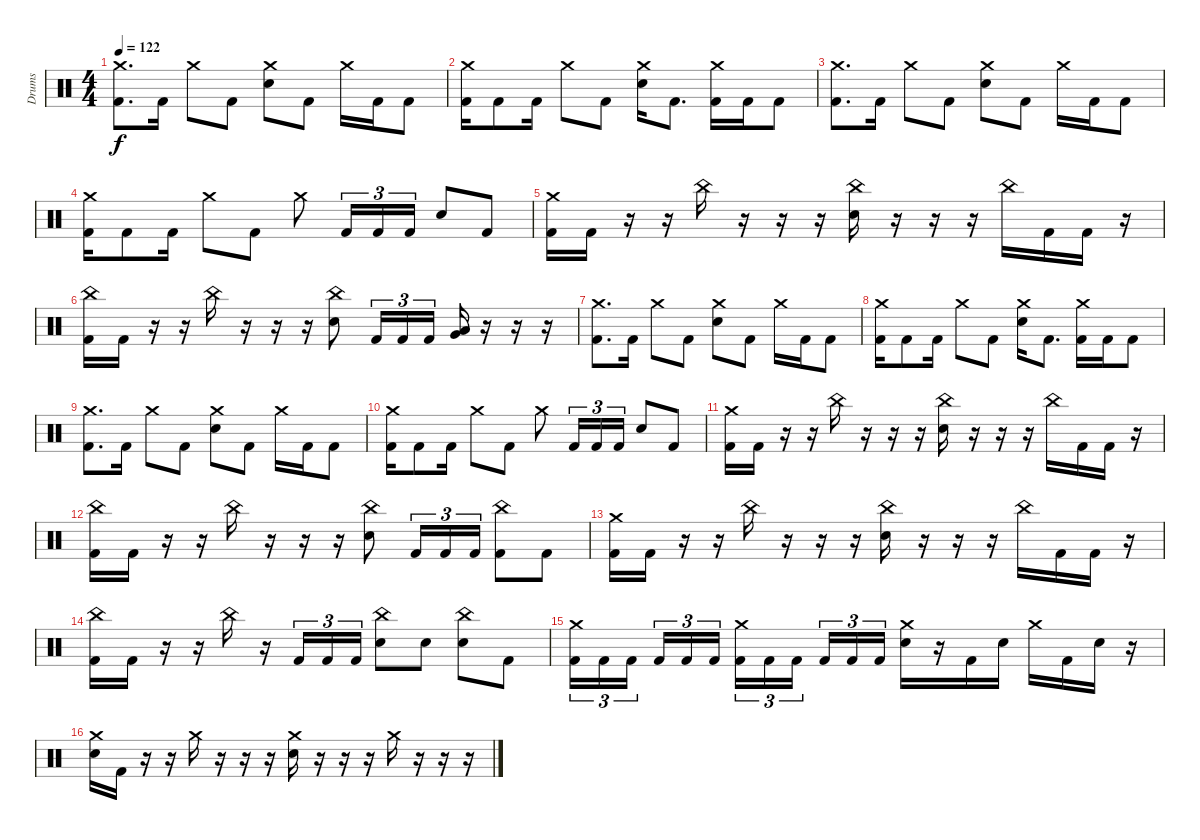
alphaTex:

\track ("Drums" "Drums") {instrument percussion}
\staff {score}
\articulation defaults
\ts (4 4)
\tempo 122
\clef neutral
\ks c
("Crash medium (hit)" "Kick (hit) 2").8{d dy f} "Kick (hit) 2".16 "Crash medium (hit)".8 "Kick (hit) 2".8 ("Crash medium (hit)" "Electric Snare (hit)").8 "Kick (hit) 2".8 "Crash medium (hit)".16 "Kick (hit) 2".16 "Kick (hit) 2".8 |
("Crash medium (hit)" "Kick (hit) 2").16 "Kick (hit) 2".8 "Kick (hit) 2".16 "Crash medium (hit)".8 "Kick (hit) 2".8 ("Crash medium (hit)" "Electric Snare (hit)").16 "Kick (hit) 2".8{d} ("Crash medium (hit)" "Kick (hit) 2").16 "Kick (hit) 2".16 "Kick (hit) 2".8 |
("Crash medium (hit)" "Kick (hit) 2").8{d} "Kick (hit) 2".16 "Crash medium (hit)".8 "Kick (hit) 2".8 ("Crash medium (hit)" "Electric Snare (hit)").8 "Kick (hit) 2".8 "Crash medium (hit)".16 "Kick (hit) 2".16 "Kick (hit) 2".8 |
("Crash medium (hit)" "Kick (hit) 2").16 "Kick (hit) 2".8 "Kick (hit) 2".16 "Crash medium (hit)".8 "Kick (hit) 2".8 "Crash medium (hit)".8 "Kick (hit) 2".16{tu (3 2)} "Kick (hit) 2".16{tu (3 2)} "Kick (hit) 2".16{tu (3 2)} "Electric Snare (hit)".8 "Kick (hit) 2".8 |
("Crash medium (hit)" "Kick (hit) 2").16 "Kick (hit) 2".16 r.16 r.16 "China (hit)".16 r.16 r.16 r.16 ("China (hit)" "Electric Snare (hit)").16 r.16 r.16 r.16 "China (hit)".16 "Kick (hit) 2".16 "Kick (hit) 2".16 r.16 |
("China (hit)" "Kick (hit) 2").16 "Kick (hit) 2".16 r.16 r.16 "China (hit)".16 r.16 r.16 r.16 ("China (hit)" "Electric Snare (hit)").8 "Kick (hit) 2".16{tu (3 2)} "Kick (hit) 2".16{tu (3 2)} "Kick (hit) 2".16{tu (3 2)} ("Very Low Tom (hit)" "Low Floor Tom (hit)").16 r.16 r.16 r.16 |
("Crash medium (hit)" "Kick (hit) 2").8{d} "Kick (hit) 2".16 "Crash medium (hit)".8 "Kick (hit) 2".8 ("Crash medium (hit)" "Electric Snare (hit)").8 "Kick (hit) 2".8 "Crash medium (hit)".16 "Kick (hit) 2".16 "Kick (hit) 2".8 |
("Crash medium (hit)" "Kick (hit) 2").16 "Kick (hit) 2".8 "Kick (hit) 2".16 "Crash medium (hit)".8 "Kick (hit) 2".8 ("Crash medium (hit)" "Electric Snare (hit)").16 "Kick (hit) 2".8{d} ("Crash medium (hit)" "Kick (hit) 2").16 "Kick (hit) 2".16 "Kick (hit) 2".8 |
("Crash medium (hit)" "Kick (hit) 2").8{d} "Kick (hit) 2".16 "Crash medium (hit)".8 "Kick (hit) 2".8 ("Crash medium (hit)" "Electric Snare (hit)").8 "Kick (hit) 2".8 "Crash medium (hit)".16 "Kick (hit) 2".16 "Kick (hit) 2".8 |
("Crash medium (hit)" "Kick (hit) 2").16 "Kick (hit) 2".8 "Kick (hit) 2".16 "Crash medium (hit)".8 "Kick (hit) 2".8 "Crash medium (hit)".8 "Kick (hit) 2".16{tu (3 2)} "Kick (hit) 2".16{tu (3 2)} "Kick (hit) 2".16{tu (3 2)} "Electric Snare (hit)".8 "Kick (hit) 2".8 |
("Crash medium (hit)" "Kick (hit) 2").16 "Kick (hit) 2".16 r.16 r.16 "China (hit)".16 r.16 r.16 r.16 ("China (hit)" "Electric Snare (hit)").16 r.16 r.16 r.16 "China (hit)".16 "Kick (hit) 2".16 "Kick (hit) 2".16 r.16 |
("China (hit)" "Kick (hit) 2").16 "Kick (hit) 2".16 r.16 r.16 "China (hit)".16 r.16 r.16 r.16 ("China (hit)" "Electric Snare (hit)").8 "Kick (hit) 2".16{tu (3 2)} "Kick (hit) 2".16{tu (3 2)} "Kick (hit) 2".16{tu (3 2)} ("China (hit)" "Kick (hit) 2").8 "Kick (hit) 2".8 |
("Crash medium (hit)" "Kick (hit) 2").16 "Kick (hit) 2".16 r.16 r.16 "China (hit)".16 r.16 r.16 r.16 ("China (hit)" "Electric Snare (hit)").16 r.16 r.16 r.16 "China (hit)".16 "Kick (hit) 2".16 "Kick (hit) 2".16 r.16 |
("China (hit)" "Kick (hit) 2").16 "Kick (hit) 2".16 r.16 r.16 "China (hit)".16 r.16 "Kick (hit) 2".16{tu (3 2)} "Kick (hit) 2".16{tu (3 2)} "Kick (hit) 2".16{tu (3 2)} ("China (hit)" "Electric Snare (hit)").8 "Electric Snare (hit)".8 ("China (hit)" "Electric Snare (hit)").8 "Kick (hit) 2".8 |
("Crash medium (hit)" "Kick (hit) 2").16{tu (3 2)} "Kick (hit) 2".16{tu (3 2)} "Kick (hit) 2".16{tu (3 2)} "Kick (hit) 2".16{tu (3 2)} "Kick (hit) 2".16{tu (3 2)} "Kick (hit) 2".16{tu (3 2)} ("Crash medium (hit)" "Kick (hit) 2").16{tu (3 2)} "Kick (hit) 2".16{tu (3 2)} "Kick (hit) 2".16{tu (3 2)} "Kick (hit) 2".16{tu (3 2)} "Kick (hit) 2".16{tu (3 2)} "Kick (hit) 2".16{tu (3 2)} ("Crash medium (hit)" "Electric Snare (hit)").16 r.16 "Kick (hit) 2".16 "Electric Snare (hit)".16 "Crash medium (hit)".16 "Kick (hit) 2".16 "Electric Snare (hit)".16 r.16 |
("Crash medium (hit)" "Electric Snare (hit)").16 "Kick (hit) 2".16 r.16 r.16 "Crash medium (hit)".16 r.16 r.16 r.16 ("Crash medium (hit)" "Electric Snare (hit)").16 r.16 r.16 r.16 "Crash medium (hit)".16 r.16 r.16 r.16
